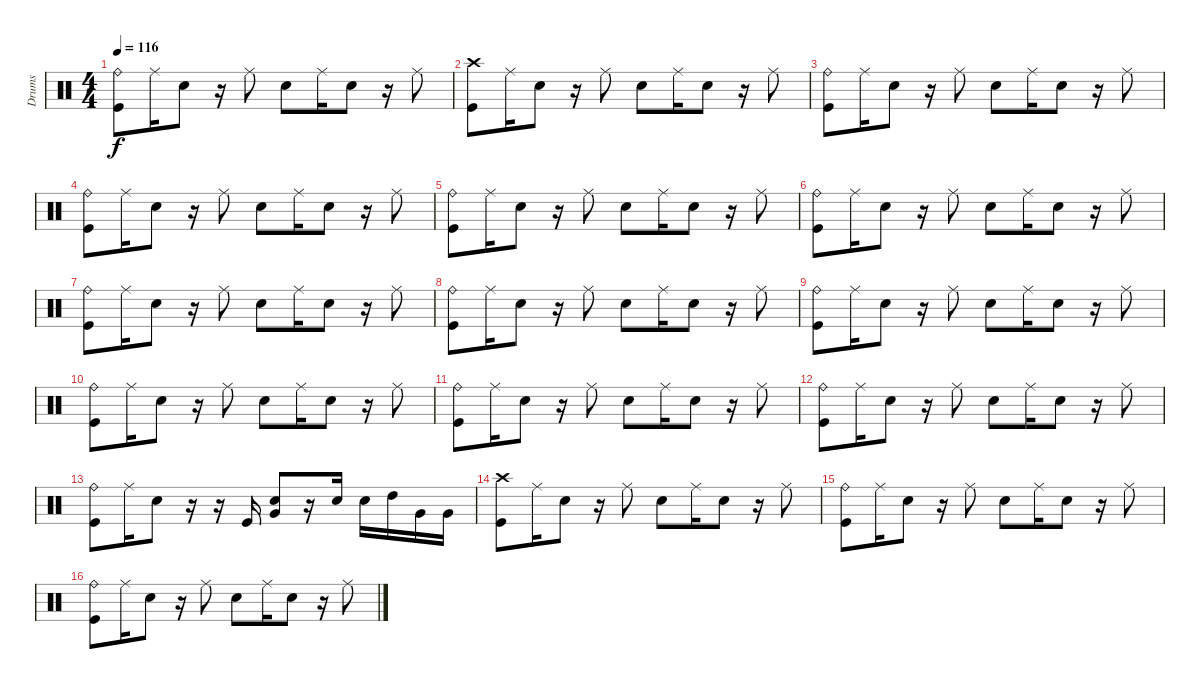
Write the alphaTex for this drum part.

\track ("Drums" "Drums") {instrument percussion}
\staff {score}
\articulation defaults
\ts (4 4)
\tempo 116
\clef neutral
\ks c
("Ride (bell)" "Kick (hit)").8{dy f} "Ride (middle)".16 "Snare (hit) 2".8 r.16 "Ride (middle)".8 "Snare (hit) 2".8 "Ride (middle)".16 "Snare (hit) 2".8 r.16 "Ride (middle)".8 |
("Crash high (hit)" "Kick (hit)").8 "Ride (middle)".16 "Snare (hit) 2".8 r.16 "Ride (middle)".8 "Snare (hit) 2".8 "Ride (middle)".16 "Snare (hit) 2".8 r.16 "Ride (middle)".8 |
("Ride (bell)" "Kick (hit)").8 "Ride (middle)".16 "Snare (hit) 2".8 r.16 "Ride (middle)".8 "Snare (hit) 2".8 "Ride (middle)".16 "Snare (hit) 2".8 r.16 "Ride (middle)".8 |
("Ride (bell)" "Kick (hit)").8 "Ride (middle)".16 "Snare (hit) 2".8 r.16 "Ride (middle)".8 "Snare (hit) 2".8 "Ride (middle)".16 "Snare (hit) 2".8 r.16 "Ride (middle)".8 |
("Ride (bell)" "Kick (hit)").8 "Ride (middle)".16 "Snare (hit) 2".8 r.16 "Ride (middle)".8 "Snare (hit) 2".8 "Ride (middle)".16 "Snare (hit) 2".8 r.16 "Ride (middle)".8 |
("Ride (bell)" "Kick (hit)").8 "Ride (middle)".16 "Snare (hit) 2".8 r.16 "Ride (middle)".8 "Snare (hit) 2".8 "Ride (middle)".16 "Snare (hit) 2".8 r.16 "Ride (middle)".8 |
("Ride (bell)" "Kick (hit)").8 "Ride (middle)".16 "Snare (hit) 2".8 r.16 "Ride (middle)".8 "Snare (hit) 2".8 "Ride (middle)".16 "Snare (hit) 2".8 r.16 "Ride (middle)".8 |
("Ride (bell)" "Kick (hit)").8 "Ride (middle)".16 "Snare (hit) 2".8 r.16 "Ride (middle)".8 "Snare (hit) 2".8 "Ride (middle)".16 "Snare (hit) 2".8 r.16 "Ride (middle)".8 |
("Ride (bell)" "Kick (hit)").8 "Ride (middle)".16 "Snare (hit) 2".8 r.16 "Ride (middle)".8 "Snare (hit) 2".8 "Ride (middle)".16 "Snare (hit) 2".8 r.16 "Ride (middle)".8 |
("Ride (bell)" "Kick (hit)").8 "Ride (middle)".16 "Snare (hit) 2".8 r.16 "Ride (middle)".8 "Snare (hit) 2".8 "Ride (middle)".16 "Snare (hit) 2".8 r.16 "Ride (middle)".8 |
("Ride (bell)" "Kick (hit)").8 "Ride (middle)".16 "Snare (hit) 2".8 r.16 "Ride (middle)".8 "Snare (hit) 2".8 "Ride (middle)".16 "Snare (hit) 2".8 r.16 "Ride (middle)".8 |
("Ride (bell)" "Kick (hit)").8 "Ride (middle)".16 "Snare (hit) 2".8 r.16 "Ride (middle)".8 "Snare (hit) 2".8 "Ride (middle)".16 "Snare (hit) 2".8 r.16 "Ride (middle)".8 |
("Ride (bell)" "Kick (hit)").8 "Ride (middle)".16 "Snare (hit) 2".8 r.16 r.16 "Kick (hit)".16 ("Snare (hit) 2" "Very Low Tom (hit)").8 r.16 "Snare (hit) 2".16 "Snare (hit) 2".16 "High Tom (hit)".16 "Very Low Tom (hit)".16 "Very Low Tom (hit)".16 |
("Crash high (hit)" "Kick (hit)").8 "Ride (middle)".16 "Snare (hit) 2".8 r.16 "Ride (middle)".8 "Snare (hit) 2".8 "Ride (middle)".16 "Snare (hit) 2".8 r.16 "Ride (middle)".8 |
("Ride (bell)" "Kick (hit)").8 "Ride (middle)".16 "Snare (hit) 2".8 r.16 "Ride (middle)".8 "Snare (hit) 2".8 "Ride (middle)".16 "Snare (hit) 2".8 r.16 "Ride (middle)".8 |
("Ride (bell)" "Kick (hit)").8 "Ride (middle)".16 "Snare (hit) 2".8 r.16 "Ride (middle)".8 "Snare (hit) 2".8 "Ride (middle)".16 "Snare (hit) 2".8 r.16 "Ride (middle)".8
